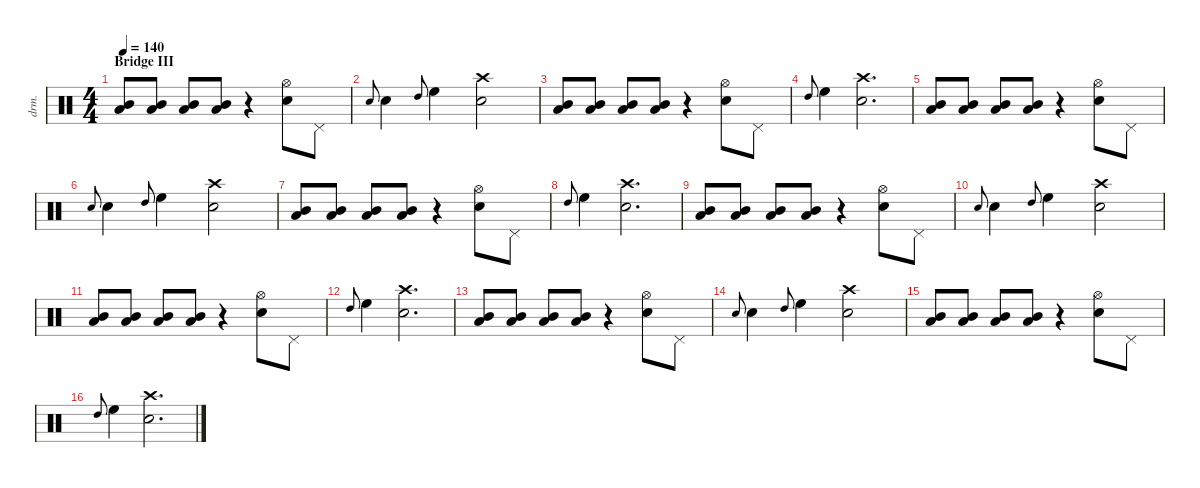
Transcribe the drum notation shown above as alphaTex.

\defaultSystemsLayout 4
\hideDynamics
\bracketExtendMode nobrackets
\otherSystemsTrackNameOrientation horizontal
\track ("Drums" "drm.") {multiBarRest instrument percussion}
\staff
\articulation defaults
\ts (4 4)
\section ("" "Bridge III")
\tempo 140
\clef neutral
\ks c
("Mid Tom (hit)" "Low Tom (hit)").8{dy ff} ("Mid Tom (hit)" "Low Tom (hit)").8 ("Mid Tom (hit)" "Low Tom (hit)").8 ("Mid Tom (hit)" "Low Tom (hit)").8 r.4 ("Snare (hit) 2" "Hi-Hat (open)").8{dy f} "Pedal Hi-Hat (hit)".8{dy mp} |
"Snare (hit) 2".8{gr onbeat dy f} "Snare (hit) 2".4 "High Tom (hit)".8{gr onbeat dy ff} "High Floor Tom (hit)".4 ("Snare (hit) 2" "Crash high (hit)").2{dy f} |
("Mid Tom (hit)" "Low Tom (hit)").8{dy ff} ("Mid Tom (hit)" "Low Tom (hit)").8 ("Mid Tom (hit)" "Low Tom (hit)").8 ("Mid Tom (hit)" "Low Tom (hit)").8 r.4 ("Snare (hit) 2" "Hi-Hat (open)").8{dy f} "Pedal Hi-Hat (hit)".8{dy mp} |
"High Tom (hit)".8{gr onbeat dy ff} "High Floor Tom (hit)".4 ("Snare (hit) 2" "Crash high (hit)").2{d dy f} |
("Mid Tom (hit)" "Low Tom (hit)").8{dy ff} ("Mid Tom (hit)" "Low Tom (hit)").8 ("Mid Tom (hit)" "Low Tom (hit)").8 ("Mid Tom (hit)" "Low Tom (hit)").8 r.4 ("Snare (hit) 2" "Hi-Hat (open)").8{dy f} "Pedal Hi-Hat (hit)".8{dy mp} |
"Snare (hit) 2".8{gr onbeat dy f} "Snare (hit) 2".4 "High Tom (hit)".8{gr onbeat dy ff} "High Floor Tom (hit)".4 ("Snare (hit) 2" "Crash high (hit)").2{dy f} |
("Mid Tom (hit)" "Low Tom (hit)").8{dy ff} ("Mid Tom (hit)" "Low Tom (hit)").8 ("Mid Tom (hit)" "Low Tom (hit)").8 ("Mid Tom (hit)" "Low Tom (hit)").8 r.4 ("Snare (hit) 2" "Hi-Hat (open)").8{dy f} "Pedal Hi-Hat (hit)".8{dy mp} |
"High Tom (hit)".8{gr onbeat dy ff} "High Floor Tom (hit)".4 ("Snare (hit) 2" "Crash high (hit)").2{d dy f} |
("Mid Tom (hit)" "Low Tom (hit)").8{dy ff} ("Mid Tom (hit)" "Low Tom (hit)").8 ("Mid Tom (hit)" "Low Tom (hit)").8 ("Mid Tom (hit)" "Low Tom (hit)").8 r.4 ("Snare (hit) 2" "Hi-Hat (open)").8{dy f} "Pedal Hi-Hat (hit)".8{dy mp} |
"Snare (hit) 2".8{gr onbeat dy f} "Snare (hit) 2".4 "High Tom (hit)".8{gr onbeat dy ff} "High Floor Tom (hit)".4 ("Snare (hit) 2" "Crash high (hit)").2{dy f} |
("Mid Tom (hit)" "Low Tom (hit)").8{dy ff} ("Mid Tom (hit)" "Low Tom (hit)").8 ("Mid Tom (hit)" "Low Tom (hit)").8 ("Mid Tom (hit)" "Low Tom (hit)").8 r.4 ("Snare (hit) 2" "Hi-Hat (open)").8{dy f} "Pedal Hi-Hat (hit)".8{dy mp} |
"High Tom (hit)".8{gr onbeat dy ff} "High Floor Tom (hit)".4 ("Snare (hit) 2" "Crash high (hit)").2{d dy f} |
("Mid Tom (hit)" "Low Tom (hit)").8{dy ff} ("Mid Tom (hit)" "Low Tom (hit)").8 ("Mid Tom (hit)" "Low Tom (hit)").8 ("Mid Tom (hit)" "Low Tom (hit)").8 r.4 ("Snare (hit) 2" "Hi-Hat (open)").8{dy f} "Pedal Hi-Hat (hit)".8{dy mp} |
"Snare (hit) 2".8{gr onbeat dy f} "Snare (hit) 2".4 "High Tom (hit)".8{gr onbeat dy ff} "High Floor Tom (hit)".4 ("Snare (hit) 2" "Crash high (hit)").2{dy f} |
("Mid Tom (hit)" "Low Tom (hit)").8{dy ff} ("Mid Tom (hit)" "Low Tom (hit)").8 ("Mid Tom (hit)" "Low Tom (hit)").8 ("Mid Tom (hit)" "Low Tom (hit)").8 r.4 ("Snare (hit) 2" "Hi-Hat (open)").8{dy f} "Pedal Hi-Hat (hit)".8{dy mp} |
"High Tom (hit)".8{gr onbeat dy ff} "High Floor Tom (hit)".4 ("Snare (hit) 2" "Crash high (hit)").2{d dy f}
